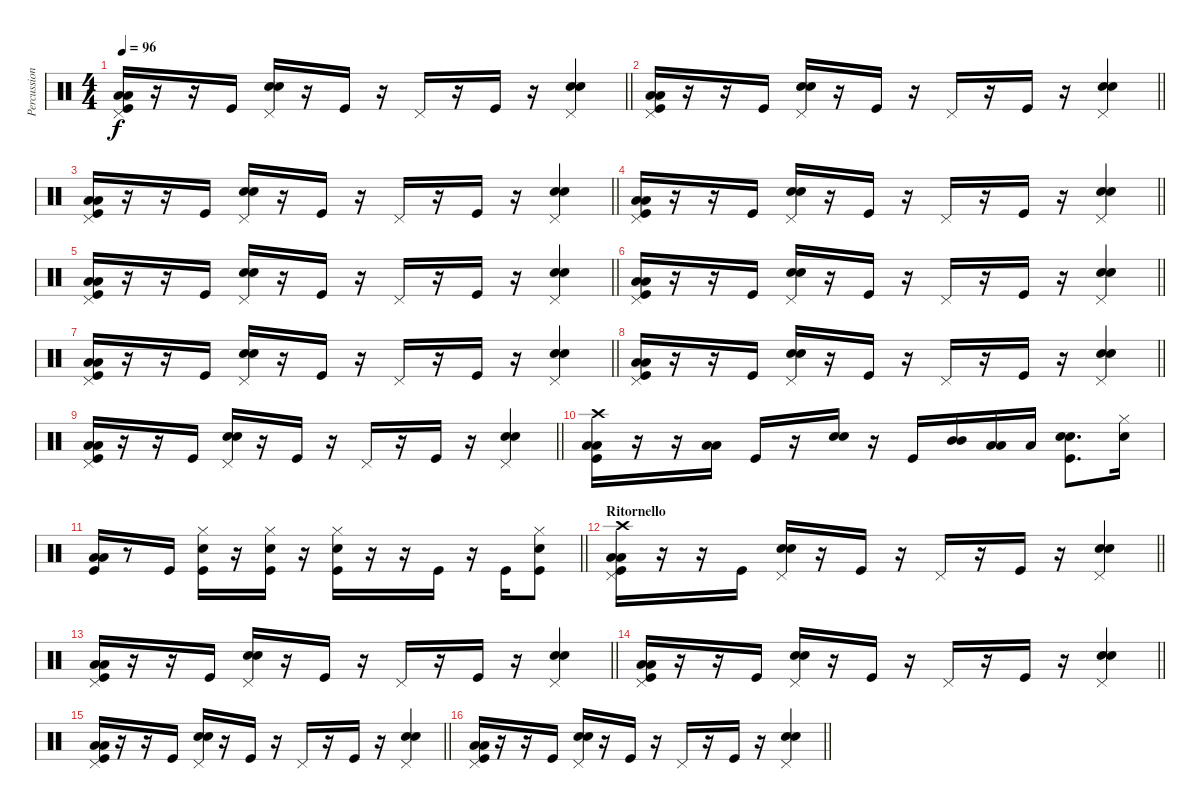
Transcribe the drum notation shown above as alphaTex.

\track ("Percussioni" "Percussion") {instrument percussion}
\staff {score}
\articulation defaults
\ts (4 4)
\tempo 96
\clef neutral
\barLineRight lightlight
\ks c
("Low Tom (hit)" "Low Tom (hit)" "Kick (hit)" "Pedal Hi-Hat (hit)").16{dy f} r.16 r.16 "Kick (hit)".16 ("Snare (hit) 2" "Snare (hit) 2" "Pedal Hi-Hat (hit)").16 r.16 "Kick (hit)".16 r.16 "Pedal Hi-Hat (hit)".16 r.16 "Kick (hit)".16 r.16 ("Snare (hit) 2" "Snare (hit) 2" "Pedal Hi-Hat (hit)").4 |
\barLineRight lightlight
("Low Tom (hit)" "Low Tom (hit)" "Kick (hit)" "Pedal Hi-Hat (hit)").16 r.16 r.16 "Kick (hit)".16 ("Snare (hit) 2" "Snare (hit) 2" "Pedal Hi-Hat (hit)").16 r.16 "Kick (hit)".16 r.16 "Pedal Hi-Hat (hit)".16 r.16 "Kick (hit)".16 r.16 ("Snare (hit) 2" "Snare (hit) 2" "Pedal Hi-Hat (hit)").4 |
\barLineRight lightlight
("Low Tom (hit)" "Low Tom (hit)" "Kick (hit)" "Pedal Hi-Hat (hit)").16 r.16 r.16 "Kick (hit)".16 ("Snare (hit) 2" "Snare (hit) 2" "Pedal Hi-Hat (hit)").16 r.16 "Kick (hit)".16 r.16 "Pedal Hi-Hat (hit)".16 r.16 "Kick (hit)".16 r.16 ("Snare (hit) 2" "Snare (hit) 2" "Pedal Hi-Hat (hit)").4 |
\barLineRight lightlight
("Low Tom (hit)" "Low Tom (hit)" "Kick (hit)" "Pedal Hi-Hat (hit)").16 r.16 r.16 "Kick (hit)".16 ("Snare (hit) 2" "Snare (hit) 2" "Pedal Hi-Hat (hit)").16 r.16 "Kick (hit)".16 r.16 "Pedal Hi-Hat (hit)".16 r.16 "Kick (hit)".16 r.16 ("Snare (hit) 2" "Snare (hit) 2" "Pedal Hi-Hat (hit)").4 |
\barLineRight lightlight
("Low Tom (hit)" "Low Tom (hit)" "Kick (hit)" "Pedal Hi-Hat (hit)").16 r.16 r.16 "Kick (hit)".16 ("Snare (hit) 2" "Snare (hit) 2" "Pedal Hi-Hat (hit)").16 r.16 "Kick (hit)".16 r.16 "Pedal Hi-Hat (hit)".16 r.16 "Kick (hit)".16 r.16 ("Snare (hit) 2" "Snare (hit) 2" "Pedal Hi-Hat (hit)").4 |
\barLineRight lightlight
("Low Tom (hit)" "Low Tom (hit)" "Kick (hit)" "Pedal Hi-Hat (hit)").16 r.16 r.16 "Kick (hit)".16 ("Snare (hit) 2" "Snare (hit) 2" "Pedal Hi-Hat (hit)").16 r.16 "Kick (hit)".16 r.16 "Pedal Hi-Hat (hit)".16 r.16 "Kick (hit)".16 r.16 ("Snare (hit) 2" "Snare (hit) 2" "Pedal Hi-Hat (hit)").4 |
\barLineRight lightlight
("Low Tom (hit)" "Low Tom (hit)" "Kick (hit)" "Pedal Hi-Hat (hit)").16 r.16 r.16 "Kick (hit)".16 ("Snare (hit) 2" "Snare (hit) 2" "Pedal Hi-Hat (hit)").16 r.16 "Kick (hit)".16 r.16 "Pedal Hi-Hat (hit)".16 r.16 "Kick (hit)".16 r.16 ("Snare (hit) 2" "Snare (hit) 2" "Pedal Hi-Hat (hit)").4 |
\barLineRight lightlight
("Low Tom (hit)" "Low Tom (hit)" "Kick (hit)" "Pedal Hi-Hat (hit)").16 r.16 r.16 "Kick (hit)".16 ("Snare (hit) 2" "Snare (hit) 2" "Pedal Hi-Hat (hit)").16 r.16 "Kick (hit)".16 r.16 "Pedal Hi-Hat (hit)".16 r.16 "Kick (hit)".16 r.16 ("Snare (hit) 2" "Snare (hit) 2" "Pedal Hi-Hat (hit)").4 |
\barLineRight lightlight
("Low Tom (hit)" "Low Tom (hit)" "Kick (hit)" "Pedal Hi-Hat (hit)").16 r.16 r.16 "Kick (hit)".16 ("Snare (hit) 2" "Snare (hit) 2" "Pedal Hi-Hat (hit)").16 r.16 "Kick (hit)".16 r.16 "Pedal Hi-Hat (hit)".16 r.16 "Kick (hit)".16 r.16 ("Snare (hit) 2" "Snare (hit) 2" "Pedal Hi-Hat (hit)").4 |
("Crash high (hit)" "Low Tom (hit)" "Low Tom (hit)" "Kick (hit)").16 r.16 r.16 ("Low Tom (hit)" "Low Tom (hit)").16 "Kick (hit)".16 r.16 ("Snare (hit) 2" "Snare (hit) 2").16 r.16 "Kick (hit)".16 ("Mid Tom (hit)" "Mid Tom (hit)").16 ("Low Tom (hit)" "Low Tom (hit)").16 "Low Tom (hit)".16 ("Snare (hit) 2" "Snare (hit) 2" "Kick (hit)").8{d} ("Hi-Hat (closed)" "Snare (hit) 2").16 |
\barLineRight lightlight
("Low Tom (hit)" "Low Tom (hit)" "Kick (hit)").16 r.8 "Kick (hit)".16 ("Hi-Hat (closed)" "Snare (hit) 2" "Kick (hit)").16 r.16 ("Hi-Hat (closed)" "Snare (hit) 2" "Kick (hit)").16 r.16 ("Hi-Hat (closed)" "Snare (hit) 2" "Kick (hit)").16 r.16 r.16 "Kick (hit)".16 r.16 "Kick (hit)".16 ("Hi-Hat (closed)" "Snare (hit) 2" "Kick (hit)").8 |
\section ("" "Ritornello")
\barLineRight lightlight
("Crash high (hit)" "Low Tom (hit)" "Low Tom (hit)" "Kick (hit)" "Pedal Hi-Hat (hit)").16 r.16 r.16 "Kick (hit)".16 ("Snare (hit) 2" "Snare (hit) 2" "Pedal Hi-Hat (hit)").16 r.16 "Kick (hit)".16 r.16 "Pedal Hi-Hat (hit)".16 r.16 "Kick (hit)".16 r.16 ("Snare (hit) 2" "Snare (hit) 2" "Pedal Hi-Hat (hit)").4 |
\barLineRight lightlight
("Low Tom (hit)" "Low Tom (hit)" "Kick (hit)" "Pedal Hi-Hat (hit)").16 r.16 r.16 "Kick (hit)".16 ("Snare (hit) 2" "Snare (hit) 2" "Pedal Hi-Hat (hit)").16 r.16 "Kick (hit)".16 r.16 "Pedal Hi-Hat (hit)".16 r.16 "Kick (hit)".16 r.16 ("Snare (hit) 2" "Snare (hit) 2" "Pedal Hi-Hat (hit)").4 |
\barLineRight lightlight
("Low Tom (hit)" "Low Tom (hit)" "Kick (hit)" "Pedal Hi-Hat (hit)").16 r.16 r.16 "Kick (hit)".16 ("Snare (hit) 2" "Snare (hit) 2" "Pedal Hi-Hat (hit)").16 r.16 "Kick (hit)".16 r.16 "Pedal Hi-Hat (hit)".16 r.16 "Kick (hit)".16 r.16 ("Snare (hit) 2" "Snare (hit) 2" "Pedal Hi-Hat (hit)").4 |
\barLineRight lightlight
("Low Tom (hit)" "Low Tom (hit)" "Kick (hit)" "Pedal Hi-Hat (hit)").16 r.16 r.16 "Kick (hit)".16 ("Snare (hit) 2" "Snare (hit) 2" "Pedal Hi-Hat (hit)").16 r.16 "Kick (hit)".16 r.16 "Pedal Hi-Hat (hit)".16 r.16 "Kick (hit)".16 r.16 ("Snare (hit) 2" "Snare (hit) 2" "Pedal Hi-Hat (hit)").4 |
\barLineRight lightlight
("Low Tom (hit)" "Low Tom (hit)" "Kick (hit)" "Pedal Hi-Hat (hit)").16 r.16 r.16 "Kick (hit)".16 ("Snare (hit) 2" "Snare (hit) 2" "Pedal Hi-Hat (hit)").16 r.16 "Kick (hit)".16 r.16 "Pedal Hi-Hat (hit)".16 r.16 "Kick (hit)".16 r.16 ("Snare (hit) 2" "Snare (hit) 2" "Pedal Hi-Hat (hit)").4
